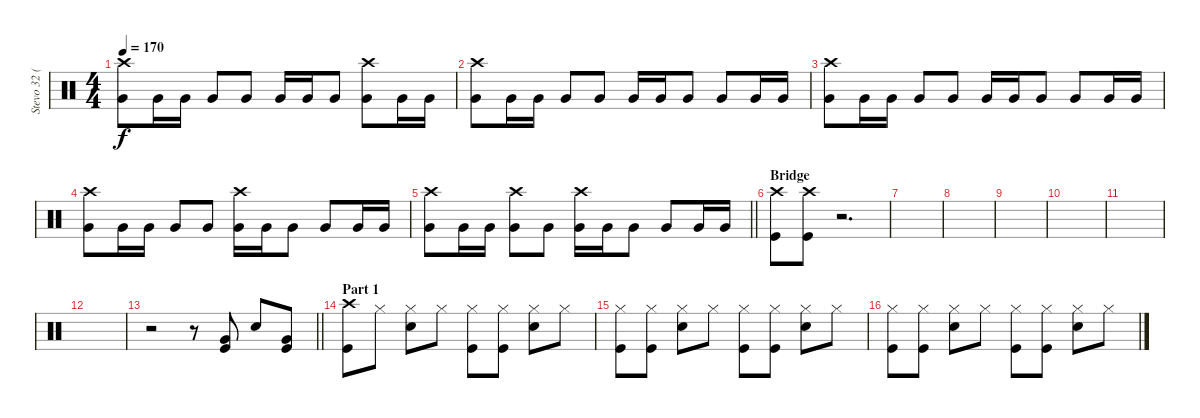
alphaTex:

\track ("Stevo 32 (Drums)" "Stevo 32 (") {instrument percussion}
\staff {score}
\articulation defaults
\ts (4 4)
\tempo 170
\clef neutral
\ks c
("Crash high (hit)" "Very Low Tom (hit)").8{dy f} "Very Low Tom (hit)".16 "Very Low Tom (hit)".16 "Very Low Tom (hit)".8 "Very Low Tom (hit)".8 "Very Low Tom (hit)".16 "Very Low Tom (hit)".16 "Very Low Tom (hit)".8 ("Crash high (hit)" "Very Low Tom (hit)").8 "Very Low Tom (hit)".16 "Very Low Tom (hit)".16 |
("Crash high (hit)" "Very Low Tom (hit)").8 "Very Low Tom (hit)".16 "Very Low Tom (hit)".16 "Very Low Tom (hit)".8 "Very Low Tom (hit)".8 "Very Low Tom (hit)".16 "Very Low Tom (hit)".16 "Very Low Tom (hit)".8 "Very Low Tom (hit)".8 "Very Low Tom (hit)".16 "Very Low Tom (hit)".16 |
("Crash high (hit)" "Very Low Tom (hit)").8 "Very Low Tom (hit)".16 "Very Low Tom (hit)".16 "Very Low Tom (hit)".8 "Very Low Tom (hit)".8 "Very Low Tom (hit)".16 "Very Low Tom (hit)".16 "Very Low Tom (hit)".8 "Very Low Tom (hit)".8 "Very Low Tom (hit)".16 "Very Low Tom (hit)".16 |
("Crash high (hit)" "Very Low Tom (hit)").8 "Very Low Tom (hit)".16 "Very Low Tom (hit)".16 "Very Low Tom (hit)".8 "Very Low Tom (hit)".8 ("Crash high (hit)" "Very Low Tom (hit)").16 "Very Low Tom (hit)".16 "Very Low Tom (hit)".8 "Very Low Tom (hit)".8 "Very Low Tom (hit)".16 "Very Low Tom (hit)".16 |
\barLineRight lightlight
("Crash high (hit)" "Very Low Tom (hit)").8 "Very Low Tom (hit)".16 "Very Low Tom (hit)".16 ("Crash high (hit)" "Very Low Tom (hit)").8 "Very Low Tom (hit)".8 ("Crash high (hit)" "Very Low Tom (hit)").16 "Very Low Tom (hit)".16 "Very Low Tom (hit)".8 "Very Low Tom (hit)".8 "Very Low Tom (hit)".16 "Very Low Tom (hit)".16 |
\section ("" "Bridge")
("Crash high (hit)" "Kick (hit)").8 ("Crash high (hit)" "Kick (hit)").8 r.2{d} |
|
|
|
|
|
|
\barLineRight lightlight
r.2 r.8 ("Very Low Tom (hit)" "Kick (hit)").8 "Electric Snare (hit)".8 ("Very Low Tom (hit)" "Kick (hit)").8 |
\section ("" "Part 1")
("Crash high (hit)" "Kick (hit)").8 "Hi-Hat (closed)".8 ("Hi-Hat (closed)" "Electric Snare (hit)").8 "Hi-Hat (closed)".8 ("Hi-Hat (closed)" "Kick (hit)").8 ("Hi-Hat (closed)" "Kick (hit)").8 ("Hi-Hat (closed)" "Electric Snare (hit)").8 "Hi-Hat (closed)".8 |
("Hi-Hat (closed)" "Kick (hit)").8 ("Hi-Hat (closed)" "Kick (hit)").8 ("Hi-Hat (closed)" "Electric Snare (hit)").8 "Hi-Hat (closed)".8 ("Hi-Hat (closed)" "Kick (hit)").8 ("Hi-Hat (closed)" "Kick (hit)").8 ("Hi-Hat (closed)" "Electric Snare (hit)").8 "Hi-Hat (closed)".8 |
("Hi-Hat (closed)" "Kick (hit)").8 ("Hi-Hat (closed)" "Kick (hit)").8 ("Hi-Hat (closed)" "Electric Snare (hit)").8 "Hi-Hat (closed)".8 ("Hi-Hat (closed)" "Kick (hit)").8 ("Hi-Hat (closed)" "Kick (hit)").8 ("Hi-Hat (closed)" "Electric Snare (hit)").8 "Hi-Hat (closed)".8
